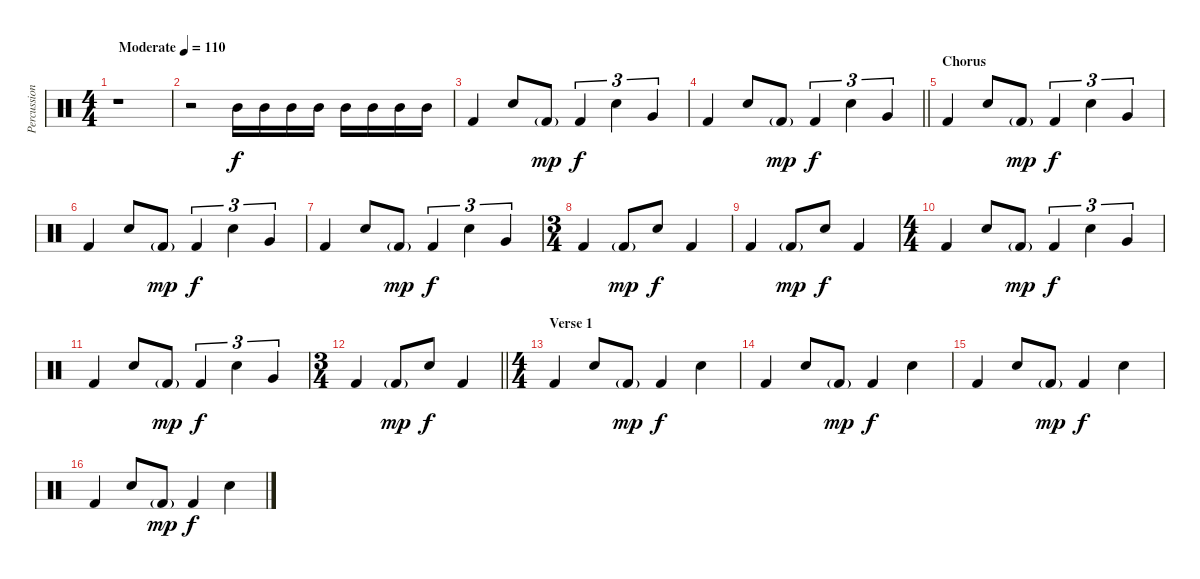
\track ("Percussion" "Percussion") {instrument percussion}
\staff {score}
\articulation defaults
\ts (4 4)
\tempo (110 "Moderate")
\clef neutral
\ks c
r.1{dy f} |
r.2 "Mid Tom (hit)".16{volume 2} "Mid Tom (hit)".16{volume 6} "Mid Tom (hit)".16 "Mid Tom (hit)".16 "Mid Tom (hit)".16 "Mid Tom (hit)".16 "Mid Tom (hit)".16 "Mid Tom (hit)".16 |
"Kick (hit) 2".4 "Snare (hit) 2".8 "Kick (hit) 2"{g}.8{dy mp} "Kick (hit) 2".4{tu (3 2) dy f} "Snare (hit) 2".4{tu (3 2)} "Very Low Tom (hit)".4{tu (3 2)} |
\barLineRight lightlight "Kick (hit) 2".4 "Snare (hit) 2".8 "Kick (hit) 2"{g}.8{dy mp} "Kick (hit) 2".4{tu (3 2) dy f} "Snare (hit) 2".4{tu (3 2)} "Very Low Tom (hit)".4{tu (3 2)}
|
\section ("" "Chorus")
"Kick (hit) 2".4 "Snare (hit) 2".8 "Kick (hit) 2"{g}.8{dy mp} "Kick (hit) 2".4{tu (3 2) dy f} "Snare (hit) 2".4{tu (3 2)} "Very Low Tom (hit)".4{tu (3 2)} |
"Kick (hit) 2".4 "Snare (hit) 2".8 "Kick (hit) 2"{g}.8{dy mp} "Kick (hit) 2".4{tu (3 2) dy f} "Snare (hit) 2".4{tu (3 2)} "Very Low Tom (hit)".4{tu (3 2)} |
"Kick (hit) 2".4 "Snare (hit) 2".8 "Kick (hit) 2"{g}.8{dy mp} "Kick (hit) 2".4{tu (3 2) dy f} "Snare (hit) 2".4{tu (3 2)} "Very Low Tom (hit)".4{tu (3 2)} |
\ts (3 4)
"Kick (hit) 2".4 "Kick (hit) 2"{g}.8{dy mp} "Snare (hit) 2".8{dy f} "Kick (hit) 2".4 |
"Kick (hit) 2".4 "Kick (hit) 2"{g}.8{dy mp} "Snare (hit) 2".8{dy f} "Kick (hit) 2".4 |
\ts (4 4)
"Kick (hit) 2".4 "Snare (hit) 2".8 "Kick (hit) 2"{g}.8{dy mp} "Kick (hit) 2".4{tu (3 2) dy f} "Snare (hit) 2".4{tu (3 2)} "Very Low Tom (hit)".4{tu (3 2)} |
"Kick (hit) 2".4 "Snare (hit) 2".8 "Kick (hit) 2"{g}.8{dy mp} "Kick (hit) 2".4{tu (3 2) dy f} "Snare (hit) 2".4{tu (3 2)} "Very Low Tom (hit)".4{tu (3 2)} |
\ts (3 4)
\barLineRight lightlight "Kick (hit) 2".4 "Kick (hit) 2"{g}.8{dy mp} "Snare (hit) 2".8{dy f} "Kick (hit) 2".4
|
\ts (4 4)
\section ("" "Verse 1")
"Kick (hit) 2".4 "Snare (hit) 2".8 "Kick (hit) 2"{g}.8{dy mp} "Kick (hit) 2".4{dy f} "Snare (hit) 2".4 |
"Kick (hit) 2".4 "Snare (hit) 2".8 "Kick (hit) 2"{g}.8{dy mp} "Kick (hit) 2".4{dy f} "Snare (hit) 2".4 |
"Kick (hit) 2".4 "Snare (hit) 2".8 "Kick (hit) 2"{g}.8{dy mp} "Kick (hit) 2".4{dy f} "Snare (hit) 2".4 |
"Kick (hit) 2".4 "Snare (hit) 2".8 "Kick (hit) 2"{g}.8{dy mp} "Kick (hit) 2".4{dy f} "Snare (hit) 2".4
